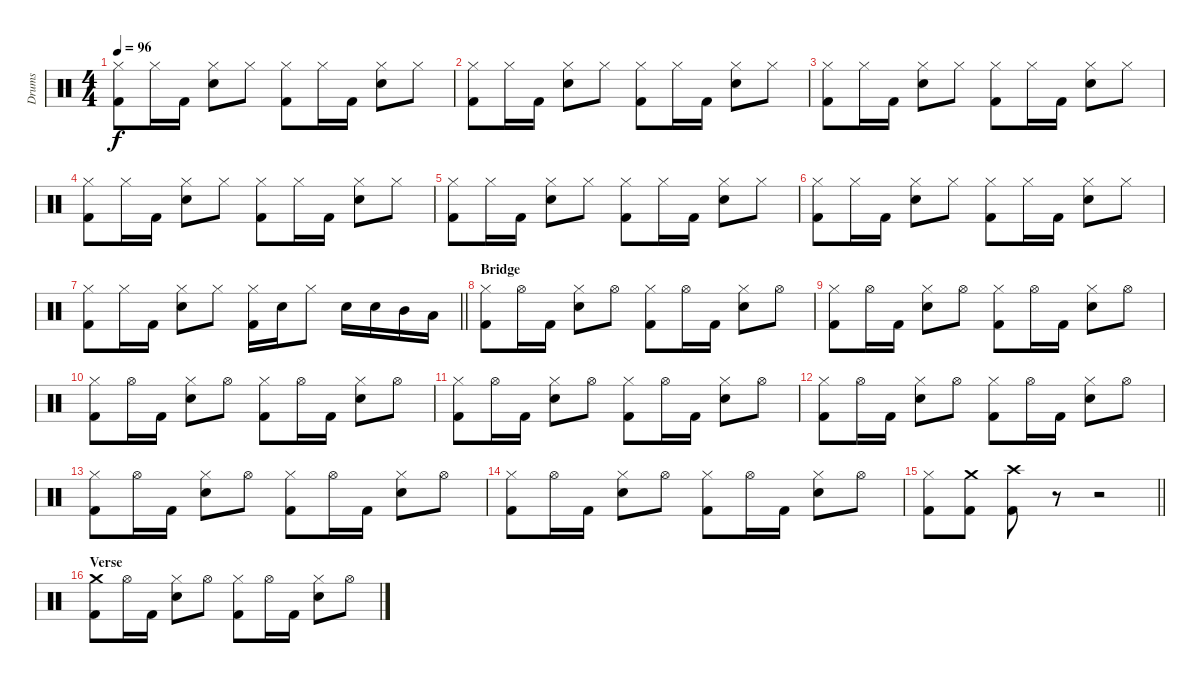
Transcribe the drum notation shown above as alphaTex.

\track ("Drums" "Drums") {instrument percussion}
\staff {score}
\articulation defaults
\ts (4 4)
\tempo 96
\clef neutral
\ks c
("Hi-Hat (closed)" "Kick (hit) 2").8{dy f} "Hi-Hat (closed)".16 "Kick (hit) 2".16 ("Hi-Hat (closed)" "Electric Snare (hit)").8 "Hi-Hat (closed)".8 ("Hi-Hat (closed)" "Kick (hit) 2").8 "Hi-Hat (closed)".16 "Kick (hit) 2".16 ("Hi-Hat (closed)" "Electric Snare (hit)").8 "Hi-Hat (closed)".8 |
("Hi-Hat (closed)" "Kick (hit) 2").8 "Hi-Hat (closed)".16 "Kick (hit) 2".16 ("Hi-Hat (closed)" "Electric Snare (hit)").8 "Hi-Hat (closed)".8 ("Hi-Hat (closed)" "Kick (hit) 2").8 "Hi-Hat (closed)".16 "Kick (hit) 2".16 ("Hi-Hat (closed)" "Electric Snare (hit)").8 "Hi-Hat (closed)".8 |
("Hi-Hat (closed)" "Kick (hit) 2").8 "Hi-Hat (closed)".16 "Kick (hit) 2".16 ("Hi-Hat (closed)" "Electric Snare (hit)").8 "Hi-Hat (closed)".8 ("Hi-Hat (closed)" "Kick (hit) 2").8 "Hi-Hat (closed)".16 "Kick (hit) 2".16 ("Hi-Hat (closed)" "Electric Snare (hit)").8 "Hi-Hat (closed)".8 |
("Hi-Hat (closed)" "Kick (hit) 2").8 "Hi-Hat (closed)".16 "Kick (hit) 2".16 ("Hi-Hat (closed)" "Electric Snare (hit)").8 "Hi-Hat (closed)".8 ("Hi-Hat (closed)" "Kick (hit) 2").8 "Hi-Hat (closed)".16 "Kick (hit) 2".16 ("Hi-Hat (closed)" "Electric Snare (hit)").8 "Hi-Hat (closed)".8 |
("Hi-Hat (closed)" "Kick (hit) 2").8 "Hi-Hat (closed)".16 "Kick (hit) 2".16 ("Hi-Hat (closed)" "Electric Snare (hit)").8 "Hi-Hat (closed)".8 ("Hi-Hat (closed)" "Kick (hit) 2").8 "Hi-Hat (closed)".16 "Kick (hit) 2".16 ("Hi-Hat (closed)" "Electric Snare (hit)").8 "Hi-Hat (closed)".8 |
("Hi-Hat (closed)" "Kick (hit) 2").8 "Hi-Hat (closed)".16 "Kick (hit) 2".16 ("Hi-Hat (closed)" "Electric Snare (hit)").8 "Hi-Hat (closed)".8 ("Hi-Hat (closed)" "Kick (hit) 2").8 "Hi-Hat (closed)".16 "Kick (hit) 2".16 ("Hi-Hat (closed)" "Electric Snare (hit)").8 "Hi-Hat (closed)".8 |
\barLineRight lightlight
("Hi-Hat (closed)" "Kick (hit) 2").8 "Hi-Hat (closed)".16 "Kick (hit) 2".16 ("Hi-Hat (closed)" "Electric Snare (hit)").8 "Hi-Hat (closed)".8 ("Hi-Hat (closed)" "Kick (hit) 2").16 "Electric Snare (hit)".16 "Hi-Hat (closed)".8 "Electric Snare (hit)".16 "Electric Snare (hit)".16 "Mid Tom (hit)".16 "Low Tom (hit)".16 |
\section ("" "Bridge")
("Hi-Hat (closed)" "Kick (hit) 2").8 "Hi-Hat (open)".16 "Kick (hit) 2".16 ("Hi-Hat (closed)" "Electric Snare (hit)").8 "Hi-Hat (open)".8 ("Hi-Hat (closed)" "Kick (hit) 2").8 "Hi-Hat (open)".16 "Kick (hit) 2".16 ("Hi-Hat (closed)" "Electric Snare (hit)").8 "Hi-Hat (open)".8 |
("Hi-Hat (closed)" "Kick (hit) 2").8 "Hi-Hat (open)".16 "Kick (hit) 2".16 ("Hi-Hat (closed)" "Electric Snare (hit)").8 "Hi-Hat (open)".8 ("Hi-Hat (closed)" "Kick (hit) 2").8 "Hi-Hat (open)".16 "Kick (hit) 2".16 ("Hi-Hat (closed)" "Electric Snare (hit)").8 "Hi-Hat (open)".8 |
("Hi-Hat (closed)" "Kick (hit) 2").8 "Hi-Hat (open)".16 "Kick (hit) 2".16 ("Hi-Hat (closed)" "Electric Snare (hit)").8 "Hi-Hat (open)".8 ("Hi-Hat (closed)" "Kick (hit) 2").8 "Hi-Hat (open)".16 "Kick (hit) 2".16 ("Hi-Hat (closed)" "Electric Snare (hit)").8 "Hi-Hat (open)".8 |
("Hi-Hat (closed)" "Kick (hit) 2").8 "Hi-Hat (open)".16 "Kick (hit) 2".16 ("Hi-Hat (closed)" "Electric Snare (hit)").8 "Hi-Hat (open)".8 ("Hi-Hat (closed)" "Kick (hit) 2").8 "Hi-Hat (open)".16 "Kick (hit) 2".16 ("Hi-Hat (closed)" "Electric Snare (hit)").8 "Hi-Hat (open)".8 |
("Hi-Hat (closed)" "Kick (hit) 2").8 "Hi-Hat (open)".16 "Kick (hit) 2".16 ("Hi-Hat (closed)" "Electric Snare (hit)").8 "Hi-Hat (open)".8 ("Hi-Hat (closed)" "Kick (hit) 2").8 "Hi-Hat (open)".16 "Kick (hit) 2".16 ("Hi-Hat (closed)" "Electric Snare (hit)").8 "Hi-Hat (open)".8 |
("Hi-Hat (closed)" "Kick (hit) 2").8 "Hi-Hat (open)".16 "Kick (hit) 2".16 ("Hi-Hat (closed)" "Electric Snare (hit)").8 "Hi-Hat (open)".8 ("Hi-Hat (closed)" "Kick (hit) 2").8 "Hi-Hat (open)".16 "Kick (hit) 2".16 ("Hi-Hat (closed)" "Electric Snare (hit)").8 "Hi-Hat (open)".8 |
("Hi-Hat (closed)" "Kick (hit) 2").8 "Hi-Hat (open)".16 "Kick (hit) 2".16 ("Hi-Hat (closed)" "Electric Snare (hit)").8 "Hi-Hat (open)".8 ("Hi-Hat (closed)" "Kick (hit) 2").8 "Hi-Hat (open)".16 "Kick (hit) 2".16 ("Hi-Hat (closed)" "Electric Snare (hit)").8 "Hi-Hat (open)".8 |
\barLineRight lightlight
("Hi-Hat (closed)" "Kick (hit) 2").8 ("Crash medium (hit)" "Kick (hit) 2").8 ("Crash high (hit)" "Kick (hit) 2").8 r.8 r.2 |
\section ("" "Verse")
("Crash medium (hit)" "Kick (hit) 2").8 "Hi-Hat (open)".16 "Kick (hit) 2".16 ("Hi-Hat (closed)" "Electric Snare (hit)").8 "Hi-Hat (open)".8 ("Hi-Hat (closed)" "Kick (hit) 2").8 "Hi-Hat (open)".16 "Kick (hit) 2".16 ("Hi-Hat (closed)" "Electric Snare (hit)").8 "Hi-Hat (open)".8
